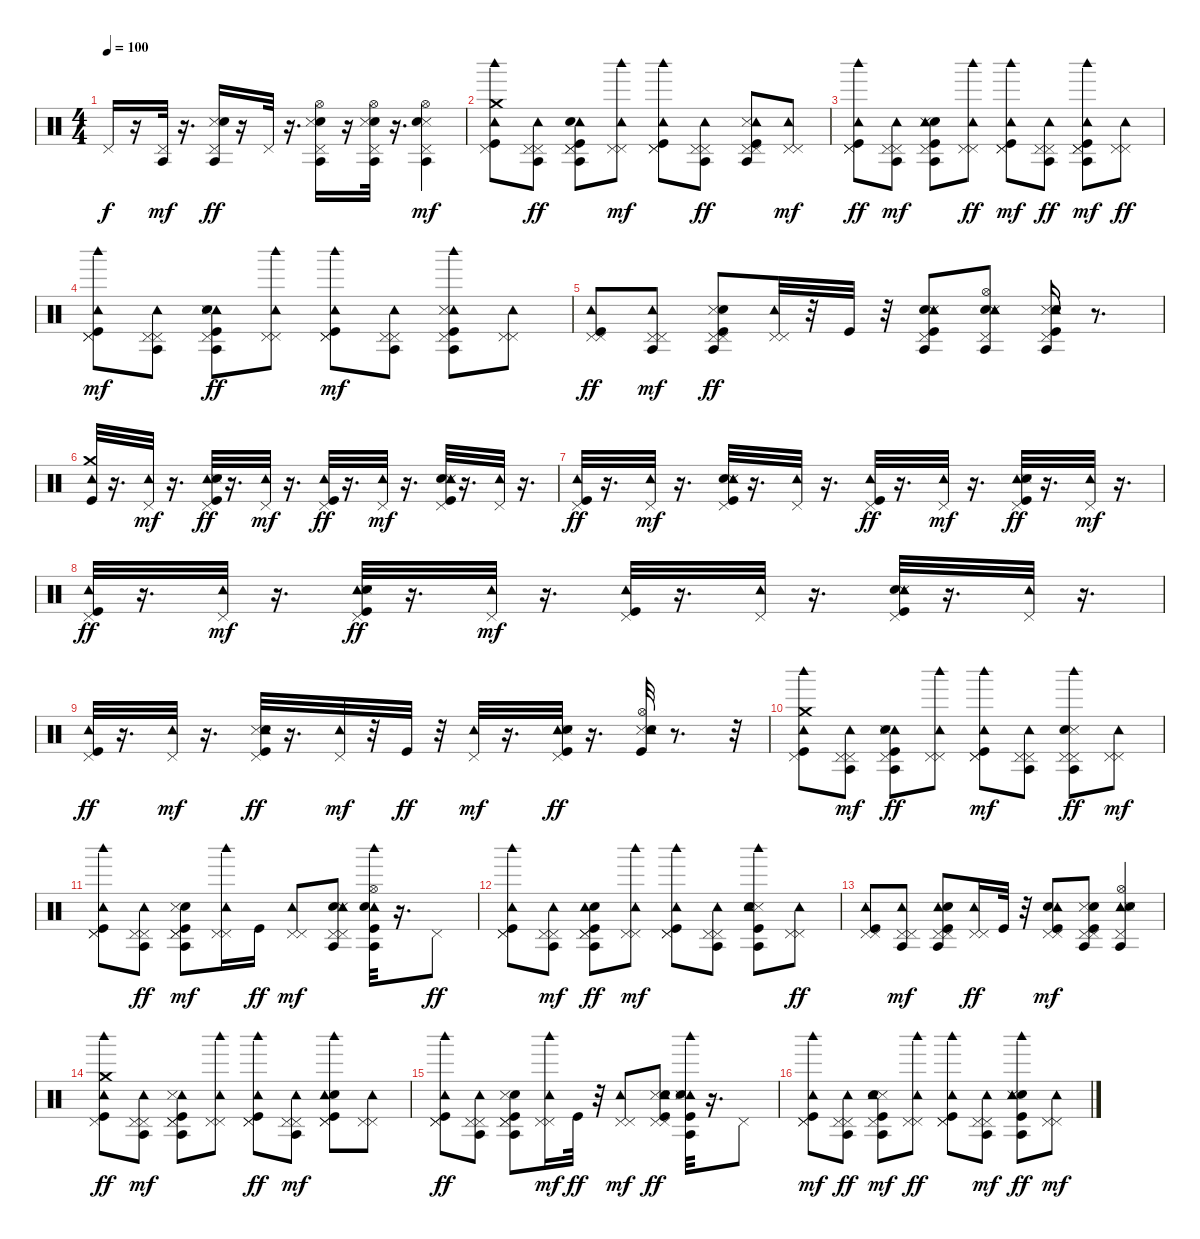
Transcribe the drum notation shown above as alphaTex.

\track "" {instrument percussion}
\staff {score}
\articulation defaults
\ts (4 4)
\tempo 100
\clef neutral
\ks c "Pedal Hi-Hat (hit)".16{dy f}
r.16 ("Pedal Hi-Hat (hit)" "Agogo tow (hit)").32{dy mf} r.16{d} ("Snare (side stick) 3" "Pedal Hi-Hat (hit)" "Agogo tow (hit)" "Snare (hit) 2").16{dy ff} r.16 "Pedal Hi-Hat (hit)".32 r.16{d} ("Hi-Hat (open)" "Snare (hit) 2" "Pedal Hi-Hat (hit)" "Snare (side stick) 3" "Agogo tow (hit)").16 r.16 ("Agogo tow (hit)" "Snare (hit) 2" "Pedal Hi-Hat (hit)" "Hi-Hat (open)" "Snare (side stick) 3").32 r.16{d} ("Pedal Hi-Hat (hit)" "Hi-Hat (open)" "Snare (side stick) 3" "Snare (hit) 2" "Agogo tow (hit)").4{dy mf} |
("Pedal Hi-Hat (hit)" "Tambourine (hit)" "Crash medium (hit)" "Kick (hit)" "Woodblock high (hit)").8 ("Pedal Hi-Hat (hit)" "Agogo tow (hit)" "Tambourine (hit)" "Pedal Hi-Hat (hit)").8{dy ff} ("Pedal Hi-Hat (hit)" "Agogo tow (hit)" "Kick (hit)" "Tambourine (hit)" "Snare (hit) 2" "Pedal Hi-Hat (hit)").8 ("Pedal Hi-Hat (hit)" "Pedal Hi-Hat (hit)" "Woodblock high (hit)" "Tambourine (hit)").8{dy mf} ("Tambourine (hit)" "Kick (hit)" "Pedal Hi-Hat (hit)" "Woodblock high (hit)" "Pedal Hi-Hat (hit)").8 ("Agogo tow (hit)" "Tambourine (hit)" "Pedal Hi-Hat (hit)" "Pedal Hi-Hat (hit)").8{dy ff} ("Agogo tow (hit)" "Snare (side stick) 3" "Pedal Hi-Hat (hit)" "Pedal Hi-Hat (hit)" "Tambourine (hit)" "Kick (hit)").8 ("Pedal Hi-Hat (hit)" "Pedal Hi-Hat (hit)" "Tambourine (hit)").8{dy mf} |
("Woodblock high (hit)" "Kick (hit)" "Tambourine (hit)" "Pedal Hi-Hat (hit)" "Pedal Hi-Hat (hit)").8{dy ff} ("Tambourine (hit)" "Pedal Hi-Hat (hit)" "Agogo tow (hit)" "Pedal Hi-Hat (hit)").8{dy mf} ("Snare (hit) 2" "Agogo tow (hit)" "Kick (hit)" "Pedal Hi-Hat (hit)" "Tambourine (hit)" "Snare (side stick) 3").8 ("Pedal Hi-Hat (hit)" "Tambourine (hit)" "Woodblock high (hit)" "Pedal Hi-Hat (hit)").8{dy ff} ("Kick (hit)" "Pedal Hi-Hat (hit)" "Tambourine (hit)" "Pedal Hi-Hat (hit)" "Woodblock high (hit)").8{dy mf} ("Agogo tow (hit)" "Pedal Hi-Hat (hit)" "Tambourine (hit)" "Pedal Hi-Hat (hit)").8{dy ff} ("Woodblock high (hit)" "Agogo tow (hit)" "Pedal Hi-Hat (hit)" "Pedal Hi-Hat (hit)" "Kick (hit)" "Tambourine (hit)").8{dy mf} ("Pedal Hi-Hat (hit)" "Tambourine (hit)" "Pedal Hi-Hat (hit)").8{dy ff} |
("Kick (hit)" "Tambourine (hit)" "Woodblock high (hit)" "Pedal Hi-Hat (hit)" "Pedal Hi-Hat (hit)").8{dy mf} ("Agogo tow (hit)" "Pedal Hi-Hat (hit)" "Tambourine (hit)" "Pedal Hi-Hat (hit)").8 ("Tambourine (hit)" "Agogo tow (hit)" "Snare (side stick) 3" "Snare (hit) 2" "Pedal Hi-Hat (hit)" "Kick (hit)").8{dy ff} ("Pedal Hi-Hat (hit)" "Woodblock high (hit)" "Tambourine (hit)" "Pedal Hi-Hat (hit)").8 ("Pedal Hi-Hat (hit)" "Kick (hit)" "Pedal Hi-Hat (hit)" "Tambourine (hit)" "Woodblock high (hit)").8{dy mf} ("Pedal Hi-Hat (hit)" "Pedal Hi-Hat (hit)" "Tambourine (hit)" "Agogo tow (hit)").8 ("Woodblock high (hit)" "Pedal Hi-Hat (hit)" "Kick (hit)" "Agogo tow (hit)" "Tambourine (hit)" "Snare (side stick) 3").8 ("Pedal Hi-Hat (hit)" "Pedal Hi-Hat (hit)" "Tambourine (hit)").8 |
("Tambourine (hit)" "Pedal Hi-Hat (hit)" "Pedal Hi-Hat (hit)" "Kick (hit)").8{dy ff} ("Pedal Hi-Hat (hit)" "Pedal Hi-Hat (hit)" "Agogo tow (hit)" "Tambourine (hit)").8{dy mf} ("Pedal Hi-Hat (hit)" "Snare (side stick) 3" "Pedal Hi-Hat (hit)" "Snare (hit) 2" "Agogo tow (hit)" "Kick (hit)").8{dy ff} ("Tambourine (hit)" "Pedal Hi-Hat (hit)" "Pedal Hi-Hat (hit)").32 r.32 "Kick (hit)".32 r.32 ("Pedal Hi-Hat (hit)" "Snare (hit) 2" "Kick (hit)" "Agogo tow (hit)" "Snare (side stick) 3" "Tambourine (hit)").8 ("Snare (hit) 2" "Pedal Hi-Hat (hit)" "Tambourine (hit)" "Snare (side stick) 3" "Agogo tow (hit)" "Hi-Hat (open)").8 ("Snare (side stick) 3" "Agogo tow (hit)" "Snare (hit) 2" "Kick (hit)" "Pedal Hi-Hat (hit)" "Tambourine (hit)").16 r.8{d} |
("Kick (hit)" "Crash medium (hit)" "Tambourine (hit)").32 r.16{d} ("Pedal Hi-Hat (hit)" "Tambourine (hit)").32{dy mf} r.16{d} ("Tambourine (hit)" "Snare (side stick) 3" "Snare (hit) 2" "Kick (hit)" "Pedal Hi-Hat (hit)").32{dy ff} r.16{d} ("Pedal Hi-Hat (hit)" "Tambourine (hit)").32{dy mf} r.16{d} ("Tambourine (hit)" "Kick (hit)" "Pedal Hi-Hat (hit)").32{dy ff} r.16{d} ("Tambourine (hit)" "Pedal Hi-Hat (hit)").32{dy mf} r.16{d} ("Snare (hit) 2" "Tambourine (hit)" "Kick (hit)" "Pedal Hi-Hat (hit)" "Snare (side stick) 3").32 r.16{d} ("Pedal Hi-Hat (hit)" "Tambourine (hit)").32 r.16{d} |
("Tambourine (hit)" "Kick (hit)" "Pedal Hi-Hat (hit)").32{dy ff} r.16{d} ("Pedal Hi-Hat (hit)" "Tambourine (hit)").32{dy mf} r.16{d} ("Snare (hit) 2" "Kick (hit)" "Tambourine (hit)" "Pedal Hi-Hat (hit)" "Snare (side stick) 3").32 r.16{d} ("Pedal Hi-Hat (hit)" "Tambourine (hit)").32 r.16{d} ("Pedal Hi-Hat (hit)" "Tambourine (hit)" "Kick (hit)").32{dy ff} r.16{d} ("Pedal Hi-Hat (hit)" "Tambourine (hit)").32{dy mf} r.16{d} ("Pedal Hi-Hat (hit)" "Tambourine (hit)" "Snare (side stick) 3" "Snare (hit) 2" "Kick (hit)").32{dy ff} r.16{d} ("Tambourine (hit)" "Pedal Hi-Hat (hit)").32{dy mf} r.16{d} |
("Tambourine (hit)" "Kick (hit)" "Pedal Hi-Hat (hit)").32{dy ff} r.16{d} ("Pedal Hi-Hat (hit)" "Tambourine (hit)").32{dy mf} r.16{d} ("Kick (hit)" "Pedal Hi-Hat (hit)" "Tambourine (hit)" "Snare (side stick) 3" "Snare (hit) 2").32{dy ff} r.16{d} ("Tambourine (hit)" "Pedal Hi-Hat (hit)").32{dy mf} r.16{d} ("Kick (hit)" "Pedal Hi-Hat (hit)" "Tambourine (hit)").32 r.16{d} ("Tambourine (hit)" "Pedal Hi-Hat (hit)").32 r.16{d} ("Snare (hit) 2" "Tambourine (hit)" "Kick (hit)" "Pedal Hi-Hat (hit)" "Snare (side stick) 3").32 r.16{d} ("Tambourine (hit)" "Pedal Hi-Hat (hit)").32 r.16{d} |
("Pedal Hi-Hat (hit)" "Tambourine (hit)" "Kick (hit)").32{dy ff} r.16{d} ("Tambourine (hit)" "Pedal Hi-Hat (hit)").32{dy mf} r.16{d} ("Snare (side stick) 3" "Pedal Hi-Hat (hit)" "Tambourine (hit)" "Snare (hit) 2" "Kick (hit)").32{dy ff} r.16{d} ("Tambourine (hit)" "Pedal Hi-Hat (hit)").32{dy mf} r.32 "Kick (hit)".32{dy ff} r.32 ("Pedal Hi-Hat (hit)" "Tambourine (hit)").32{dy mf} r.16{d} ("Kick (hit)" "Tambourine (hit)" "Snare (side stick) 3" "Pedal Hi-Hat (hit)" "Snare (hit) 2").32{dy ff} r.16{d} ("Kick (hit)" "Snare (side stick) 3" "Tambourine (hit)" "Hi-Hat (open)" "Snare (hit) 2").32 r.8{d} r.32 |
("Woodblock high (hit)" "Kick (hit)" "Tambourine (hit)" "Crash medium (hit)" "Pedal Hi-Hat (hit)").8 ("Tambourine (hit)" "Pedal Hi-Hat (hit)" "Pedal Hi-Hat (hit)" "Agogo tow (hit)").8{dy mf} ("Pedal Hi-Hat (hit)" "Tambourine (hit)" "Snare (side stick) 3" "Snare (hit) 2" "Agogo tow (hit)" "Kick (hit)").8{dy ff} ("Tambourine (hit)" "Woodblock high (hit)" "Pedal Hi-Hat (hit)" "Pedal Hi-Hat (hit)").8 ("Tambourine (hit)" "Pedal Hi-Hat (hit)" "Pedal Hi-Hat (hit)" "Kick (hit)" "Woodblock high (hit)").8{dy mf} ("Pedal Hi-Hat (hit)" "Agogo tow (hit)" "Pedal Hi-Hat (hit)" "Tambourine (hit)").8 ("Pedal Hi-Hat (hit)" "Snare (side stick) 3" "Pedal Hi-Hat (hit)" "Woodblock high (hit)" "Agogo tow (hit)" "Snare (hit) 2").8{dy ff} ("Pedal Hi-Hat (hit)" "Pedal Hi-Hat (hit)" "Tambourine (hit)").8{dy mf} |
("Pedal Hi-Hat (hit)" "Kick (hit)" "Woodblock high (hit)" "Tambourine (hit)" "Pedal Hi-Hat (hit)").8 ("Pedal Hi-Hat (hit)" "Agogo tow (hit)" "Tambourine (hit)" "Pedal Hi-Hat (hit)").8{dy ff} ("Snare (hit) 2" "Kick (hit)" "Agogo tow (hit)" "Pedal Hi-Hat (hit)" "Snare (side stick) 3" "Pedal Hi-Hat (hit)").8{dy mf} ("Pedal Hi-Hat (hit)" "Woodblock high (hit)" "Pedal Hi-Hat (hit)" "Tambourine (hit)").16 "Kick (hit)".16{dy ff} ("Tambourine (hit)" "Pedal Hi-Hat (hit)" "Pedal Hi-Hat (hit)").8{dy mf} ("Snare (hit) 2" "Pedal Hi-Hat (hit)" "Snare (side stick) 3" "Pedal Hi-Hat (hit)" "Tambourine (hit)" "Agogo tow (hit)").8 ("Tambourine (hit)" "Woodblock high (hit)" "Kick (hit)" "Snare (hit) 2" "Agogo tow (hit)" "Hi-Hat (open)").32 r.16{d} "Pedal Hi-Hat (hit)".8{dy ff} |
("Pedal Hi-Hat (hit)" "Woodblock high (hit)" "Kick (hit)" "Tambourine (hit)" "Pedal Hi-Hat (hit)").8 ("Pedal Hi-Hat (hit)" "Tambourine (hit)" "Agogo tow (hit)" "Pedal Hi-Hat (hit)").8{dy mf} ("Snare (hit) 2" "Pedal Hi-Hat (hit)" "Agogo tow (hit)" "Tambourine (hit)" "Pedal Hi-Hat (hit)" "Kick (hit)").8{dy ff} ("Pedal Hi-Hat (hit)" "Pedal Hi-Hat (hit)" "Woodblock high (hit)" "Tambourine (hit)").8{dy mf} ("Pedal Hi-Hat (hit)" "Tambourine (hit)" "Pedal Hi-Hat (hit)" "Kick (hit)" "Woodblock high (hit)").8 ("Pedal Hi-Hat (hit)" "Agogo tow (hit)" "Pedal Hi-Hat (hit)" "Tambourine (hit)").8 ("Kick (hit)" "Snare (side stick) 3" "Tambourine (hit)" "Agogo tow (hit)" "Snare (hit) 2" "Woodblock high (hit)").8 ("Pedal Hi-Hat (hit)" "Tambourine (hit)" "Pedal Hi-Hat (hit)").8{dy ff} |
("Kick (hit)" "Tambourine (hit)" "Pedal Hi-Hat (hit)" "Pedal Hi-Hat (hit)").8 ("Agogo tow (hit)" "Pedal Hi-Hat (hit)" "Tambourine (hit)" "Pedal Hi-Hat (hit)").8{dy mf} ("Kick (hit)" "Tambourine (hit)" "Snare (hit) 2" "Pedal Hi-Hat (hit)" "Agogo tow (hit)" "Pedal Hi-Hat (hit)").8 ("Tambourine (hit)" "Pedal Hi-Hat (hit)" "Pedal Hi-Hat (hit)").16{dy ff} "Kick (hit)".32 r.32 ("Pedal Hi-Hat (hit)" "Snare (hit) 2" "Kick (hit)" "Pedal Hi-Hat (hit)" "Tambourine (hit)").8{dy mf} ("Pedal Hi-Hat (hit)" "Kick (hit)" "Snare (side stick) 3" "Pedal Hi-Hat (hit)" "Snare (hit) 2" "Agogo tow (hit)").8 ("Tambourine (hit)" "Pedal Hi-Hat (hit)" "Snare (side stick) 3" "Snare (hit) 2" "Hi-Hat (open)" "Agogo tow (hit)").4 |
("Crash medium (hit)" "Woodblock high (hit)" "Kick (hit)" "Pedal Hi-Hat (hit)" "Tambourine (hit)").8{dy ff} ("Pedal Hi-Hat (hit)" "Pedal Hi-Hat (hit)" "Tambourine (hit)" "Agogo tow (hit)").8{dy mf} ("Tambourine (hit)" "Pedal Hi-Hat (hit)" "Pedal Hi-Hat (hit)" "Kick (hit)" "Agogo tow (hit)" "Snare (side stick) 3").8 ("Woodblock high (hit)" "Pedal Hi-Hat (hit)" "Pedal Hi-Hat (hit)" "Tambourine (hit)").8 ("Pedal Hi-Hat (hit)" "Woodblock high (hit)" "Tambourine (hit)" "Kick (hit)" "Pedal Hi-Hat (hit)").8{dy ff} ("Tambourine (hit)" "Pedal Hi-Hat (hit)" "Agogo tow (hit)" "Pedal Hi-Hat (hit)").8{dy mf} ("Snare (hit) 2" "Woodblock high (hit)" "Pedal Hi-Hat (hit)" "Kick (hit)" "Pedal Hi-Hat (hit)" "Tambourine (hit)").8 ("Pedal Hi-Hat (hit)" "Tambourine (hit)" "Pedal Hi-Hat (hit)").8 |
("Woodblock high (hit)" "Pedal Hi-Hat (hit)" "Kick (hit)" "Pedal Hi-Hat (hit)" "Tambourine (hit)").8{dy ff} ("Agogo tow (hit)" "Tambourine (hit)" "Pedal Hi-Hat (hit)" "Pedal Hi-Hat (hit)").8 ("Pedal Hi-Hat (hit)" "Snare (hit) 2" "Agogo tow (hit)" "Pedal Hi-Hat (hit)" "Snare (side stick) 3" "Kick (hit)").8 ("Pedal Hi-Hat (hit)" "Pedal Hi-Hat (hit)" "Woodblock high (hit)" "Tambourine (hit)").16{dy mf} "Kick (hit)".32{dy ff} r.32 ("Pedal Hi-Hat (hit)" "Pedal Hi-Hat (hit)" "Tambourine (hit)").8{dy mf} ("Pedal Hi-Hat (hit)" "Snare (side stick) 3" "Kick (hit)" "Tambourine (hit)" "Snare (hit) 2" "Pedal Hi-Hat (hit)").8{dy ff} ("Woodblock high (hit)" "Agogo tow (hit)" "Tambourine (hit)" "Kick (hit)" "Snare (side stick) 3" "Snare (hit) 2").32 r.16{d} "Pedal Hi-Hat (hit)".8 |
("Kick (hit)" "Woodblock high (hit)" "Pedal Hi-Hat (hit)" "Pedal Hi-Hat (hit)" "Tambourine (hit)").8{dy mf} ("Pedal Hi-Hat (hit)" "Tambourine (hit)" "Agogo tow (hit)" "Pedal Hi-Hat (hit)").8{dy ff} ("Snare (side stick) 3" "Kick (hit)" "Snare (hit) 2" "Agogo tow (hit)" "Pedal Hi-Hat (hit)" "Tambourine (hit)").8{dy mf} ("Woodblock high (hit)" "Pedal Hi-Hat (hit)" "Tambourine (hit)" "Pedal Hi-Hat (hit)").8{dy ff} ("Woodblock high (hit)" "Pedal Hi-Hat (hit)" "Tambourine (hit)" "Kick (hit)" "Pedal Hi-Hat (hit)").8 ("Pedal Hi-Hat (hit)" "Tambourine (hit)" "Pedal Hi-Hat (hit)" "Agogo tow (hit)").8{dy mf} ("Snare (hit) 2" "Woodblock high (hit)" "Agogo tow (hit)" "Snare (side stick) 3" "Tambourine (hit)" "Kick (hit)").8{dy ff} ("Pedal Hi-Hat (hit)" "Tambourine (hit)" "Pedal Hi-Hat (hit)").8{dy mf}
